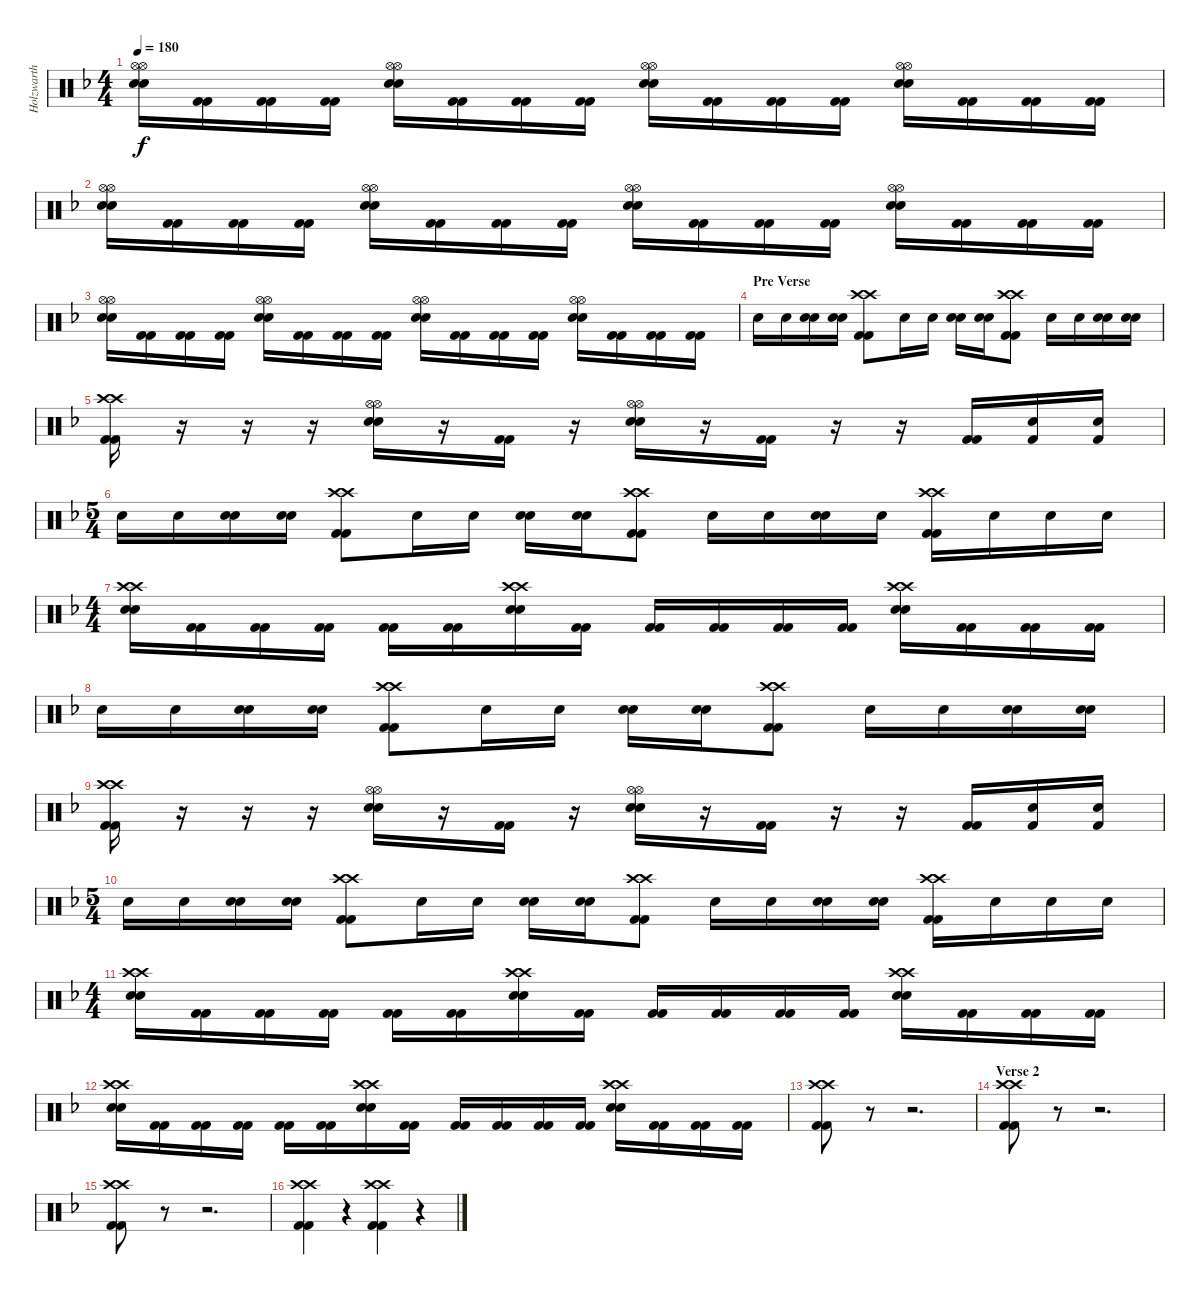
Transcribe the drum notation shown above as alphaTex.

\track ("Holzwarth" "Holzwarth") {instrument percussion}
\staff {score}
\articulation defaults
\ts (4 4)
\tempo 180
\clef neutral
\ks dminor
("Snare (hit) 2" "Snare (hit) 2" "Hi-Hat (open)" "Hi-Hat (open)").16{dy f} ("Kick (hit) 2" "Kick (hit) 2").16 ("Kick (hit) 2" "Kick (hit) 2").16 ("Kick (hit) 2" "Kick (hit) 2").16 ("Snare (hit) 2" "Snare (hit) 2" "Hi-Hat (open)" "Hi-Hat (open)").16 ("Kick (hit) 2" "Kick (hit) 2").16 ("Kick (hit) 2" "Kick (hit) 2").16 ("Kick (hit) 2" "Kick (hit) 2").16 ("Snare (hit) 2" "Snare (hit) 2" "Hi-Hat (open)" "Hi-Hat (open)").16 ("Kick (hit) 2" "Kick (hit) 2").16 ("Kick (hit) 2" "Kick (hit) 2").16 ("Kick (hit) 2" "Kick (hit) 2").16 ("Snare (hit) 2" "Snare (hit) 2" "Hi-Hat (open)" "Hi-Hat (open)").16 ("Kick (hit) 2" "Kick (hit) 2").16 ("Kick (hit) 2" "Kick (hit) 2").16 ("Kick (hit) 2" "Kick (hit) 2").16 |
("Snare (hit) 2" "Snare (hit) 2" "Hi-Hat (open)" "Hi-Hat (open)").16 ("Kick (hit) 2" "Kick (hit) 2").16 ("Kick (hit) 2" "Kick (hit) 2").16 ("Kick (hit) 2" "Kick (hit) 2").16 ("Snare (hit) 2" "Snare (hit) 2" "Hi-Hat (open)" "Hi-Hat (open)").16 ("Kick (hit) 2" "Kick (hit) 2").16 ("Kick (hit) 2" "Kick (hit) 2").16 ("Kick (hit) 2" "Kick (hit) 2").16 ("Snare (hit) 2" "Snare (hit) 2" "Hi-Hat (open)" "Hi-Hat (open)").16 ("Kick (hit) 2" "Kick (hit) 2").16 ("Kick (hit) 2" "Kick (hit) 2").16 ("Kick (hit) 2" "Kick (hit) 2").16 ("Snare (hit) 2" "Snare (hit) 2" "Hi-Hat (open)" "Hi-Hat (open)").16 ("Kick (hit) 2" "Kick (hit) 2").16 ("Kick (hit) 2" "Kick (hit) 2").16 ("Kick (hit) 2" "Kick (hit) 2").16 |
("Snare (hit) 2" "Snare (hit) 2" "Hi-Hat (open)" "Hi-Hat (open)").16 ("Kick (hit) 2" "Kick (hit) 2").16 ("Kick (hit) 2" "Kick (hit) 2").16 ("Kick (hit) 2" "Kick (hit) 2").16 ("Snare (hit) 2" "Snare (hit) 2" "Hi-Hat (open)" "Hi-Hat (open)").16 ("Kick (hit) 2" "Kick (hit) 2").16 ("Kick (hit) 2" "Kick (hit) 2").16 ("Kick (hit) 2" "Kick (hit) 2").16 ("Snare (hit) 2" "Snare (hit) 2" "Hi-Hat (open)" "Hi-Hat (open)").16 ("Kick (hit) 2" "Kick (hit) 2").16 ("Kick (hit) 2" "Kick (hit) 2").16 ("Kick (hit) 2" "Kick (hit) 2").16 ("Snare (hit) 2" "Snare (hit) 2" "Hi-Hat (open)" "Hi-Hat (open)").16 ("Kick (hit) 2" "Kick (hit) 2").16 ("Kick (hit) 2" "Kick (hit) 2").16 ("Kick (hit) 2" "Kick (hit) 2").16 |
\section ("" "Pre Verse")
"Snare (hit) 2".16 "Snare (hit) 2".16 ("Snare (hit) 2" "Snare (hit) 2").16 ("Snare (hit) 2" "Snare (hit) 2").16 ("Kick (hit) 2" "Kick (hit) 2" "Crash high (hit)" "Crash high (hit)").8 "Snare (hit) 2".16 "Snare (hit) 2".16 ("Snare (hit) 2" "Snare (hit) 2").16 ("Snare (hit) 2" "Snare (hit) 2").16 ("Kick (hit) 2" "Kick (hit) 2" "Crash high (hit)" "Crash high (hit)").8 "Snare (hit) 2".16 "Snare (hit) 2".16 ("Snare (hit) 2" "Snare (hit) 2").16 ("Snare (hit) 2" "Snare (hit) 2").16 |
("Kick (hit) 2" "Kick (hit) 2" "Crash high (hit)" "Crash high (hit)").16 r.16 r.16 r.16 ("Snare (hit) 2" "Snare (hit) 2" "Hi-Hat (open)" "Hi-Hat (open)").16 r.16 ("Kick (hit) 2" "Kick (hit) 2").16 r.16 ("Snare (hit) 2" "Snare (hit) 2" "Hi-Hat (open)" "Hi-Hat (open)").16 r.16 ("Kick (hit) 2" "Kick (hit) 2").16 r.16 r.16 ("Kick (hit) 2" "Kick (hit) 2").16 ("Kick (hit) 2" "Snare (hit) 2").16 ("Kick (hit) 2" "Snare (hit) 2").16 |
\ts (5 4)
"Snare (hit) 2".16 "Snare (hit) 2".16 ("Snare (hit) 2" "Snare (hit) 2").16 ("Snare (hit) 2" "Snare (hit) 2").16 ("Kick (hit) 2" "Kick (hit) 2" "Crash high (hit)" "Crash high (hit)").8 "Snare (hit) 2".16 "Snare (hit) 2".16 ("Snare (hit) 2" "Snare (hit) 2").16 ("Snare (hit) 2" "Snare (hit) 2").16 ("Kick (hit) 2" "Kick (hit) 2" "Crash high (hit)" "Crash high (hit)").8 "Snare (hit) 2".16 "Snare (hit) 2".16 ("Snare (hit) 2" "Snare (hit) 2").16 "Snare (hit) 2".16 ("Kick (hit) 2" "Kick (hit) 2" "Crash high (hit)" "Crash high (hit)").16 "Snare (hit) 2".16 "Snare (hit) 2".16 "Snare (hit) 2".16 |
\ts (4 4)
("Snare (hit) 2" "Snare (hit) 2" "Crash high (hit)" "Crash high (hit)").16 ("Kick (hit) 2" "Kick (hit) 2").16 ("Kick (hit) 2" "Kick (hit) 2").16 ("Kick (hit) 2" "Kick (hit) 2").16 ("Kick (hit) 2" "Kick (hit) 2").16 ("Kick (hit) 2" "Kick (hit) 2").16 ("Snare (hit) 2" "Snare (hit) 2" "Crash high (hit)" "Crash high (hit)").16 ("Kick (hit) 2" "Kick (hit) 2").16 ("Kick (hit) 2" "Kick (hit) 2").16 ("Kick (hit) 2" "Kick (hit) 2").16 ("Kick (hit) 2" "Kick (hit) 2").16 ("Kick (hit) 2" "Kick (hit) 2").16 ("Snare (hit) 2" "Snare (hit) 2" "Crash high (hit)" "Crash high (hit)").16 ("Kick (hit) 2" "Kick (hit) 2").16 ("Kick (hit) 2" "Kick (hit) 2").16 ("Kick (hit) 2" "Kick (hit) 2").16 |
"Snare (hit) 2".16 "Snare (hit) 2".16 ("Snare (hit) 2" "Snare (hit) 2").16 ("Snare (hit) 2" "Snare (hit) 2").16 ("Kick (hit) 2" "Kick (hit) 2" "Crash high (hit)" "Crash high (hit)").8 "Snare (hit) 2".16 "Snare (hit) 2".16 ("Snare (hit) 2" "Snare (hit) 2").16 ("Snare (hit) 2" "Snare (hit) 2").16 ("Kick (hit) 2" "Kick (hit) 2" "Crash high (hit)" "Crash high (hit)").8 "Snare (hit) 2".16 "Snare (hit) 2".16 ("Snare (hit) 2" "Snare (hit) 2").16 ("Snare (hit) 2" "Snare (hit) 2").16 |
("Kick (hit) 2" "Kick (hit) 2" "Crash high (hit)" "Crash high (hit)").16 r.16 r.16 r.16 ("Snare (hit) 2" "Snare (hit) 2" "Hi-Hat (open)" "Hi-Hat (open)").16 r.16 ("Kick (hit) 2" "Kick (hit) 2").16 r.16 ("Snare (hit) 2" "Snare (hit) 2" "Hi-Hat (open)" "Hi-Hat (open)").16 r.16 ("Kick (hit) 2" "Kick (hit) 2").16 r.16 r.16 ("Kick (hit) 2" "Kick (hit) 2").16 ("Kick (hit) 2" "Snare (hit) 2").16 ("Kick (hit) 2" "Snare (hit) 2").16 |
\ts (5 4)
"Snare (hit) 2".16 "Snare (hit) 2".16 ("Snare (hit) 2" "Snare (hit) 2").16 ("Snare (hit) 2" "Snare (hit) 2").16 ("Kick (hit) 2" "Kick (hit) 2" "Crash high (hit)" "Crash high (hit)").8 "Snare (hit) 2".16 "Snare (hit) 2".16 ("Snare (hit) 2" "Snare (hit) 2").16 ("Snare (hit) 2" "Snare (hit) 2").16 ("Kick (hit) 2" "Kick (hit) 2" "Crash high (hit)" "Crash high (hit)").8 "Snare (hit) 2".16 "Snare (hit) 2".16 ("Snare (hit) 2" "Snare (hit) 2").16 ("Snare (hit) 2" "Snare (hit) 2").16 ("Kick (hit) 2" "Kick (hit) 2" "Crash high (hit)" "Crash high (hit)").16 "Snare (hit) 2".16 "Snare (hit) 2".16 "Snare (hit) 2".16 |
\ts (4 4)
("Snare (hit) 2" "Snare (hit) 2" "Crash high (hit)" "Crash high (hit)").16 ("Kick (hit) 2" "Kick (hit) 2").16 ("Kick (hit) 2" "Kick (hit) 2").16 ("Kick (hit) 2" "Kick (hit) 2").16 ("Kick (hit) 2" "Kick (hit) 2").16 ("Kick (hit) 2" "Kick (hit) 2").16 ("Snare (hit) 2" "Snare (hit) 2" "Crash high (hit)" "Crash high (hit)").16 ("Kick (hit) 2" "Kick (hit) 2").16 ("Kick (hit) 2" "Kick (hit) 2").16 ("Kick (hit) 2" "Kick (hit) 2").16 ("Kick (hit) 2" "Kick (hit) 2").16 ("Kick (hit) 2" "Kick (hit) 2").16 ("Snare (hit) 2" "Snare (hit) 2" "Crash high (hit)" "Crash high (hit)").16 ("Kick (hit) 2" "Kick (hit) 2").16 ("Kick (hit) 2" "Kick (hit) 2").16 ("Kick (hit) 2" "Kick (hit) 2").16 |
("Snare (hit) 2" "Snare (hit) 2" "Crash high (hit)" "Crash high (hit)").16 ("Kick (hit) 2" "Kick (hit) 2").16 ("Kick (hit) 2" "Kick (hit) 2").16 ("Kick (hit) 2" "Kick (hit) 2").16 ("Kick (hit) 2" "Kick (hit) 2").16 ("Kick (hit) 2" "Kick (hit) 2").16 ("Snare (hit) 2" "Snare (hit) 2" "Crash high (hit)" "Crash high (hit)").16 ("Kick (hit) 2" "Kick (hit) 2").16 ("Kick (hit) 2" "Kick (hit) 2").16 ("Kick (hit) 2" "Kick (hit) 2").16 ("Kick (hit) 2" "Kick (hit) 2").16 ("Kick (hit) 2" "Kick (hit) 2").16 ("Snare (hit) 2" "Snare (hit) 2" "Crash high (hit)" "Crash high (hit)").16 ("Kick (hit) 2" "Kick (hit) 2").16 ("Kick (hit) 2" "Kick (hit) 2").16 ("Kick (hit) 2" "Kick (hit) 2").16 |
("Kick (hit) 2" "Kick (hit) 2" "Crash high (hit)" "Crash high (hit)").8 r.8 r.2{d} |
\section ("" "Verse 2")
("Kick (hit) 2" "Kick (hit) 2" "Crash high (hit)" "Crash high (hit)").8 r.8 r.2{d} |
("Kick (hit) 2" "Kick (hit) 2" "Crash high (hit)" "Crash high (hit)").8 r.8 r.2{d} |
("Kick (hit) 2" "Kick (hit) 2" "Crash high (hit)" "Crash high (hit)").4 r.4 ("Kick (hit) 2" "Kick (hit) 2" "Crash high (hit)" "Crash high (hit)").4 r.4
